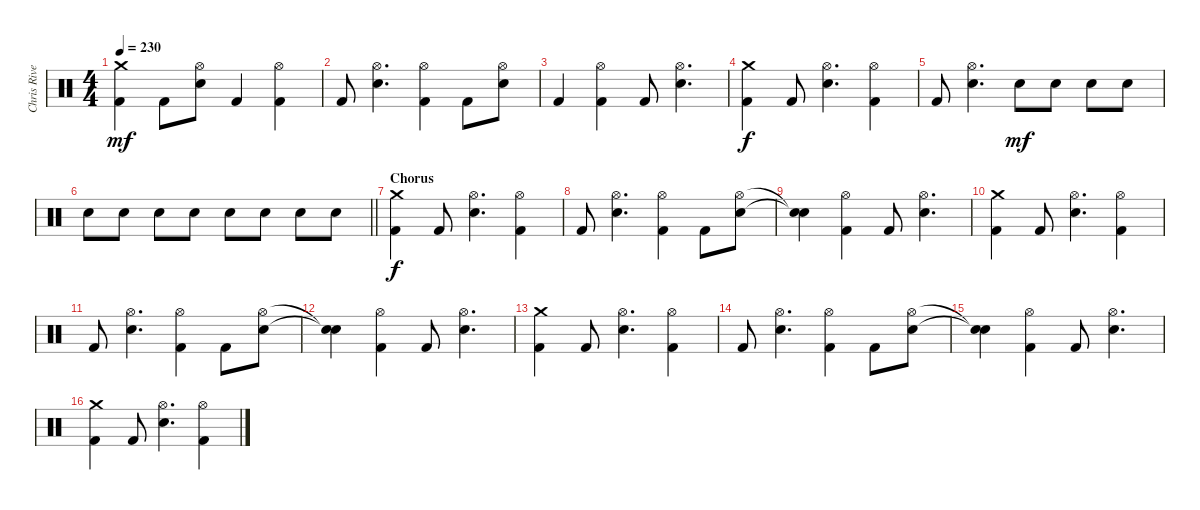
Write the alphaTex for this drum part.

\track ("Chris Rivers" "Chris Rive") {instrument percussion}
\staff {score}
\articulation defaults
\ts (4 4)
\tempo 230
\clef neutral
\ks c
("Crash medium (hit)" "Kick (hit) 2").4{dy mf} "Kick (hit) 2".8 ("Hi-Hat (open)" "Electric Snare (hit)").8 "Kick (hit) 2".4 ("Hi-Hat (open)" "Kick (hit) 2").4 |
"Kick (hit) 2".8 ("Hi-Hat (open)" "Electric Snare (hit)").4{d} ("Hi-Hat (open)" "Kick (hit) 2").4 "Kick (hit) 2".8 ("Hi-Hat (open)" "Electric Snare (hit)").8 |
"Kick (hit) 2".4 ("Hi-Hat (open)" "Kick (hit) 2").4 "Kick (hit) 2".8 ("Hi-Hat (open)" "Electric Snare (hit)").4{d} |
("Crash medium (hit)" "Kick (hit) 2").4{dy f} "Kick (hit) 2".8 ("Hi-Hat (open)" "Electric Snare (hit)").4{d} ("Hi-Hat (open)" "Kick (hit) 2").4 |
"Kick (hit) 2".8 ("Hi-Hat (open)" "Electric Snare (hit)").4{d} "Electric Snare (hit)".8{dy mf} "Electric Snare (hit)".8 "Electric Snare (hit)".8 "Electric Snare (hit)".8 |
\barLineRight lightlight "Electric Snare (hit)".8 "Electric Snare (hit)".8 "Electric Snare (hit)".8 "Electric Snare (hit)".8 "Electric Snare (hit)".8 "Electric Snare (hit)".8 "Electric Snare (hit)".8 "Electric Snare (hit)".8
|
\section ("" "Chorus")
("Crash medium (hit)" "Kick (hit) 2").4{dy f} "Kick (hit) 2".8 ("Hi-Hat (open)" "Electric Snare (hit)").4{d} ("Hi-Hat (open)" "Kick (hit) 2").4 |
"Kick (hit) 2".8 ("Hi-Hat (open)" "Electric Snare (hit)").4{d} ("Hi-Hat (open)" "Kick (hit) 2").4 "Kick (hit) 2".8 ("Hi-Hat (open)" "Electric Snare (hit)").8 |
("Snare (hit)"{t} "Snare (hit)"{t}).4 ("Hi-Hat (open)" "Kick (hit) 2").4 "Kick (hit) 2".8 ("Hi-Hat (open)" "Electric Snare (hit)").4{d} |
("Crash medium (hit)" "Kick (hit) 2").4 "Kick (hit) 2".8 ("Hi-Hat (open)" "Electric Snare (hit)").4{d} ("Hi-Hat (open)" "Kick (hit) 2").4 |
"Kick (hit) 2".8 ("Hi-Hat (open)" "Electric Snare (hit)").4{d} ("Hi-Hat (open)" "Kick (hit) 2").4 "Kick (hit) 2".8 ("Hi-Hat (open)" "Electric Snare (hit)").8 |
("Snare (hit)"{t} "Snare (hit)"{t}).4 ("Hi-Hat (open)" "Kick (hit) 2").4 "Kick (hit) 2".8 ("Hi-Hat (open)" "Electric Snare (hit)").4{d} |
("Crash medium (hit)" "Kick (hit) 2").4 "Kick (hit) 2".8 ("Hi-Hat (open)" "Electric Snare (hit)").4{d} ("Hi-Hat (open)" "Kick (hit) 2").4 |
"Kick (hit) 2".8 ("Hi-Hat (open)" "Electric Snare (hit)").4{d} ("Hi-Hat (open)" "Kick (hit) 2").4 "Kick (hit) 2".8 ("Hi-Hat (open)" "Electric Snare (hit)").8 |
("Snare (hit)"{t} "Snare (hit)"{t}).4 ("Hi-Hat (open)" "Kick (hit) 2").4 "Kick (hit) 2".8 ("Hi-Hat (open)" "Electric Snare (hit)").4{d} |
("Crash medium (hit)" "Kick (hit) 2").4 "Kick (hit) 2".8 ("Hi-Hat (open)" "Electric Snare (hit)").4{d} ("Hi-Hat (open)" "Kick (hit) 2").4
